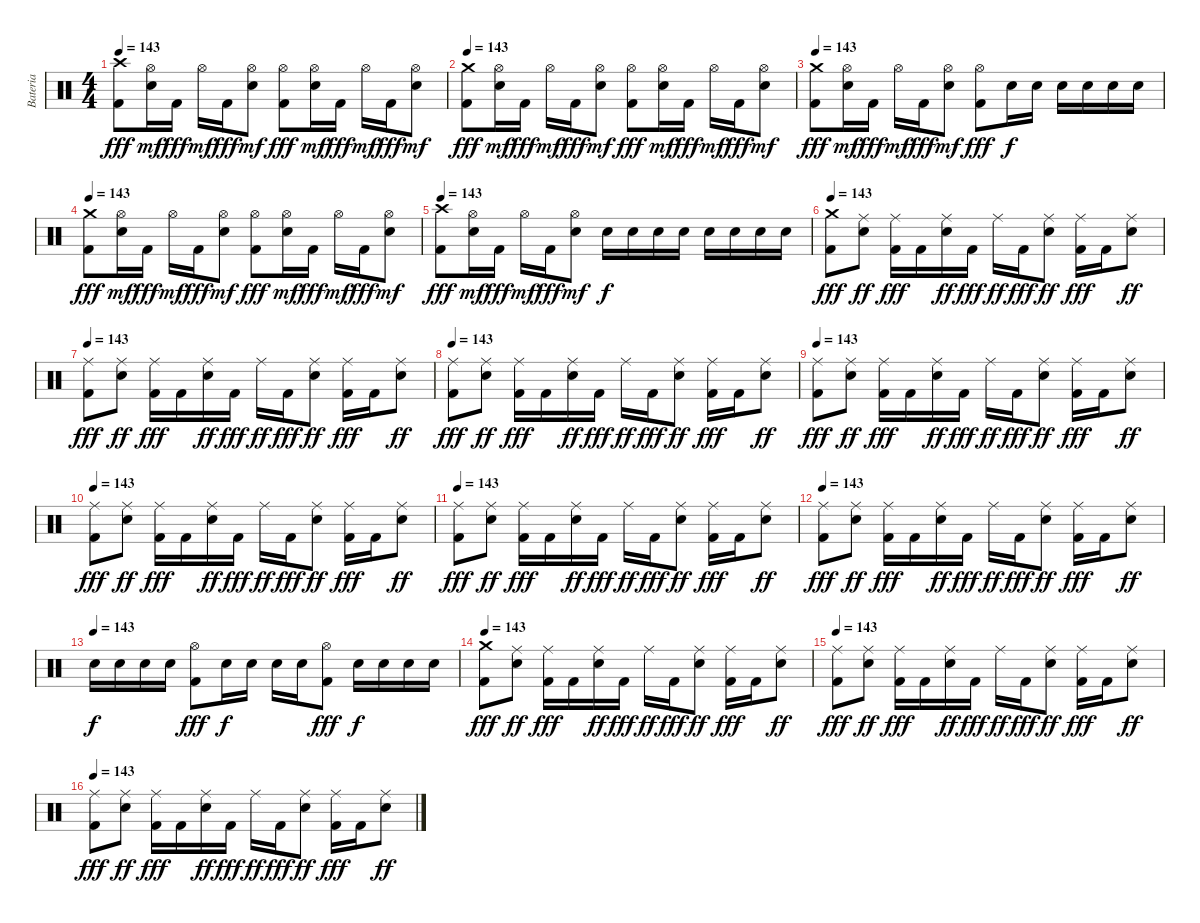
\track ("Bateria" "Bateria") {instrument percussion}
\staff {score}
\articulation defaults
\ts (4 4)
\tempo 143
\clef neutral
\ks c
("Crash high (hit)" "Kick (hit) 2").8{dy fff} ("Hi-Hat (open)" "Electric Snare (hit)").16{dy mf} "Kick (hit) 2".16{dy fff} "Hi-Hat (open)".16{dy mf} "Kick (hit) 2".16{dy fff} ("Hi-Hat (open)" "Electric Snare (hit)").8{dy mf} ("Hi-Hat (open)" "Kick (hit) 2").8{dy fff} ("Hi-Hat (open)" "Electric Snare (hit)").16{dy mf} "Kick (hit) 2".16{dy fff} "Hi-Hat (open)".16{dy mf} "Kick (hit) 2".16{dy fff} ("Hi-Hat (open)" "Electric Snare (hit)").8{dy mf} |
\tempo 143
("Crash medium (hit)" "Kick (hit) 2").8{dy fff} ("Hi-Hat (open)" "Electric Snare (hit)").16{dy mf} "Kick (hit) 2".16{dy fff} "Hi-Hat (open)".16{dy mf} "Kick (hit) 2".16{dy fff} ("Hi-Hat (open)" "Electric Snare (hit)").8{dy mf} ("Hi-Hat (open)" "Kick (hit) 2").8{dy fff} ("Hi-Hat (open)" "Electric Snare (hit)").16{dy mf} "Kick (hit) 2".16{dy fff} "Hi-Hat (open)".16{dy mf} "Kick (hit) 2".16{dy fff} ("Hi-Hat (open)" "Electric Snare (hit)").8{dy mf} |
\tempo 143
("Crash medium (hit)" "Kick (hit) 2").8{dy fff} ("Hi-Hat (open)" "Electric Snare (hit)").16{dy mf} "Kick (hit) 2".16{dy fff} "Hi-Hat (open)".16{dy mf} "Kick (hit) 2".16{dy fff} ("Hi-Hat (open)" "Electric Snare (hit)").8{dy mf} ("Hi-Hat (open)" "Kick (hit) 2").8{dy fff} "Electric Snare (hit)".16{dy f} "Electric Snare (hit)".16 "Electric Snare (hit)".16 "Electric Snare (hit)".16 "Electric Snare (hit)".16 "Electric Snare (hit)".16 |
\tempo 143
("Crash medium (hit)" "Kick (hit) 2").8{dy fff} ("Hi-Hat (open)" "Electric Snare (hit)").16{dy mf} "Kick (hit) 2".16{dy fff} "Hi-Hat (open)".16{dy mf} "Kick (hit) 2".16{dy fff} ("Hi-Hat (open)" "Electric Snare (hit)").8{dy mf} ("Hi-Hat (open)" "Kick (hit) 2").8{dy fff} ("Hi-Hat (open)" "Electric Snare (hit)").16{dy mf} "Kick (hit) 2".16{dy fff} "Hi-Hat (open)".16{dy mf} "Kick (hit) 2".16{dy fff} ("Hi-Hat (open)" "Electric Snare (hit)").8{dy mf} |
\tempo 143
("Crash high (hit)" "Kick (hit) 2").8{dy fff} ("Hi-Hat (open)" "Electric Snare (hit)").16{dy mf} "Kick (hit) 2".16{dy fff} "Hi-Hat (open)".16{dy mf} "Kick (hit) 2".16{dy fff} ("Hi-Hat (open)" "Electric Snare (hit)").8{dy mf} "Electric Snare (hit)".16{dy f} "Electric Snare (hit)".16 "Electric Snare (hit)".16 "Electric Snare (hit)".16 "Electric Snare (hit)".16 "Electric Snare (hit)".16 "Electric Snare (hit)".16 "Electric Snare (hit)".16 |
\tempo 143
("Crash medium (hit)" "Kick (hit) 2").8{dy fff} ("Ride (middle)" "Electric Snare (hit)").8{dy ff} ("Ride (middle)" "Kick (hit) 2").16{dy fff} "Kick (hit) 2".16 ("Ride (middle)" "Electric Snare (hit)").16{dy ff} "Kick (hit) 2".16{dy fff} "Ride (middle)".16{dy ff} "Kick (hit) 2".16{dy fff} ("Ride (middle)" "Electric Snare (hit)").8{dy ff} ("Ride (middle)" "Kick (hit) 2").16{dy fff} "Kick (hit) 2".16 ("Ride (middle)" "Electric Snare (hit)").8{dy ff} |
\tempo 143
("Ride (middle)" "Kick (hit) 2").8{dy fff} ("Ride (middle)" "Electric Snare (hit)").8{dy ff} ("Ride (middle)" "Kick (hit) 2").16{dy fff} "Kick (hit) 2".16 ("Ride (middle)" "Electric Snare (hit)").16{dy ff} "Kick (hit) 2".16{dy fff} "Ride (middle)".16{dy ff} "Kick (hit) 2".16{dy fff} ("Ride (middle)" "Electric Snare (hit)").8{dy ff} ("Ride (middle)" "Kick (hit) 2").16{dy fff} "Kick (hit) 2".16 ("Ride (middle)" "Electric Snare (hit)").8{dy ff} |
\tempo 143
("Ride (middle)" "Kick (hit) 2").8{dy fff} ("Ride (middle)" "Electric Snare (hit)").8{dy ff} ("Ride (middle)" "Kick (hit) 2").16{dy fff} "Kick (hit) 2".16 ("Ride (middle)" "Electric Snare (hit)").16{dy ff} "Kick (hit) 2".16{dy fff} "Ride (middle)".16{dy ff} "Kick (hit) 2".16{dy fff} ("Ride (middle)" "Electric Snare (hit)").8{dy ff} ("Ride (middle)" "Kick (hit) 2").16{dy fff} "Kick (hit) 2".16 ("Ride (middle)" "Electric Snare (hit)").8{dy ff} |
\tempo 143
("Ride (middle)" "Kick (hit) 2").8{dy fff} ("Ride (middle)" "Electric Snare (hit)").8{dy ff} ("Ride (middle)" "Kick (hit) 2").16{dy fff} "Kick (hit) 2".16 ("Ride (middle)" "Electric Snare (hit)").16{dy ff} "Kick (hit) 2".16{dy fff} "Ride (middle)".16{dy ff} "Kick (hit) 2".16{dy fff} ("Ride (middle)" "Electric Snare (hit)").8{dy ff} ("Ride (middle)" "Kick (hit) 2").16{dy fff} "Kick (hit) 2".16 ("Ride (middle)" "Electric Snare (hit)").8{dy ff} |
\tempo 143
("Ride (middle)" "Kick (hit) 2").8{dy fff} ("Ride (middle)" "Electric Snare (hit)").8{dy ff} ("Ride (middle)" "Kick (hit) 2").16{dy fff} "Kick (hit) 2".16 ("Ride (middle)" "Electric Snare (hit)").16{dy ff} "Kick (hit) 2".16{dy fff} "Ride (middle)".16{dy ff} "Kick (hit) 2".16{dy fff} ("Ride (middle)" "Electric Snare (hit)").8{dy ff} ("Ride (middle)" "Kick (hit) 2").16{dy fff} "Kick (hit) 2".16 ("Ride (middle)" "Electric Snare (hit)").8{dy ff} |
\tempo 143
("Ride (middle)" "Kick (hit) 2").8{dy fff} ("Ride (middle)" "Electric Snare (hit)").8{dy ff} ("Ride (middle)" "Kick (hit) 2").16{dy fff} "Kick (hit) 2".16 ("Ride (middle)" "Electric Snare (hit)").16{dy ff} "Kick (hit) 2".16{dy fff} "Ride (middle)".16{dy ff} "Kick (hit) 2".16{dy fff} ("Ride (middle)" "Electric Snare (hit)").8{dy ff} ("Ride (middle)" "Kick (hit) 2").16{dy fff} "Kick (hit) 2".16 ("Ride (middle)" "Electric Snare (hit)").8{dy ff} |
\tempo 143
("Ride (middle)" "Kick (hit) 2").8{dy fff} ("Ride (middle)" "Electric Snare (hit)").8{dy ff} ("Ride (middle)" "Kick (hit) 2").16{dy fff} "Kick (hit) 2".16 ("Ride (middle)" "Electric Snare (hit)").16{dy ff} "Kick (hit) 2".16{dy fff} "Ride (middle)".16{dy ff} "Kick (hit) 2".16{dy fff} ("Ride (middle)" "Electric Snare (hit)").8{dy ff} ("Ride (middle)" "Kick (hit) 2").16{dy fff} "Kick (hit) 2".16 ("Ride (middle)" "Electric Snare (hit)").8{dy ff} |
\tempo (143)
"Electric Snare (hit)".16{dy f} "Electric Snare (hit)".16 "Electric Snare (hit)".16 "Electric Snare (hit)".16 ("Hi-Hat (open)" "Kick (hit) 2").8{dy fff} "Electric Snare (hit)".16{dy f} "Electric Snare (hit)".16 "Electric Snare (hit)".16 "Electric Snare (hit)".16 ("Hi-Hat (open)" "Kick (hit) 2").8{dy fff} "Electric Snare (hit)".16{dy f} "Electric Snare (hit)".16 "Electric Snare (hit)".16 "Electric Snare (hit)".16 |
\tempo 143
("Crash medium (hit)" "Kick (hit) 2").8{dy fff} ("Ride (middle)" "Electric Snare (hit)").8{dy ff} ("Ride (middle)" "Kick (hit) 2").16{dy fff} "Kick (hit) 2".16 ("Ride (middle)" "Electric Snare (hit)").16{dy ff} "Kick (hit) 2".16{dy fff} "Ride (middle)".16{dy ff} "Kick (hit) 2".16{dy fff} ("Ride (middle)" "Electric Snare (hit)").8{dy ff} ("Ride (middle)" "Kick (hit) 2").16{dy fff} "Kick (hit) 2".16 ("Ride (middle)" "Electric Snare (hit)").8{dy ff} |
\tempo 143
("Ride (middle)" "Kick (hit) 2").8{dy fff} ("Ride (middle)" "Electric Snare (hit)").8{dy ff} ("Ride (middle)" "Kick (hit) 2").16{dy fff} "Kick (hit) 2".16 ("Ride (middle)" "Electric Snare (hit)").16{dy ff} "Kick (hit) 2".16{dy fff} "Ride (middle)".16{dy ff} "Kick (hit) 2".16{dy fff} ("Ride (middle)" "Electric Snare (hit)").8{dy ff} ("Ride (middle)" "Kick (hit) 2").16{dy fff} "Kick (hit) 2".16 ("Ride (middle)" "Electric Snare (hit)").8{dy ff} |
\tempo 143
("Ride (middle)" "Kick (hit) 2").8{dy fff} ("Ride (middle)" "Electric Snare (hit)").8{dy ff} ("Ride (middle)" "Kick (hit) 2").16{dy fff} "Kick (hit) 2".16 ("Ride (middle)" "Electric Snare (hit)").16{dy ff} "Kick (hit) 2".16{dy fff} "Ride (middle)".16{dy ff} "Kick (hit) 2".16{dy fff} ("Ride (middle)" "Electric Snare (hit)").8{dy ff} ("Ride (middle)" "Kick (hit) 2").16{dy fff} "Kick (hit) 2".16 ("Ride (middle)" "Electric Snare (hit)").8{dy ff}
